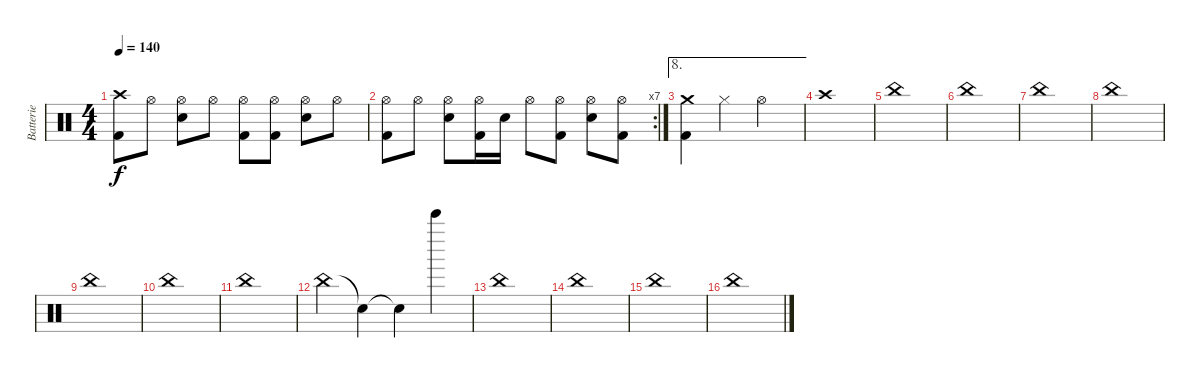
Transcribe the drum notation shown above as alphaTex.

\track ("Batterie" "Batterie") {instrument percussion}
\staff {score}
\articulation defaults
\ts (4 4)
\tempo 140
\clef neutral
\ks c
("Crash high (hit)" "Kick (hit) 2").8{dy f} "Hi-Hat (open)".8 ("Hi-Hat (open)" "Snare (hit) 2").8 "Hi-Hat (open)".8 ("Hi-Hat (open)" "Kick (hit) 2").8 ("Hi-Hat (open)" "Kick (hit) 2").8 ("Hi-Hat (open)" "Snare (hit) 2").8 "Hi-Hat (open)".8 |
\rc 7
("Hi-Hat (open)" "Kick (hit) 2").8 "Hi-Hat (open)".8 ("Hi-Hat (open)" "Snare (hit) 2").8 ("Hi-Hat (open)" "Kick (hit) 2").16 "Snare (hit) 2".16 "Hi-Hat (open)".8 ("Hi-Hat (open)" "Kick (hit) 2").8 ("Hi-Hat (open)" "Snare (hit) 2").8 ("Hi-Hat (open)" "Kick (hit) 2").8 |
\ae 8
("Crash medium (hit)" "Kick (hit) 2").4 "Hi-Hat (closed)".4 "Hi-Hat (open)".2 |
"Crash high (hit)".1 |
"China (hit)".1{volume 5} |
"China (hit)".1 |
"China (hit)".1 |
"China (hit)".1 |
"China (hit)".1 |
"China (hit)".1 |
"China (hit)".1 |
"China (hit)".4 "Snare (hit)"{t}.4 "Snare (hit)"{t}.4 "Bell Tree (hit)".4 |
"China (hit)".1 |
"China (hit)".1 |
"China (hit)".1 |
"China (hit)".1
